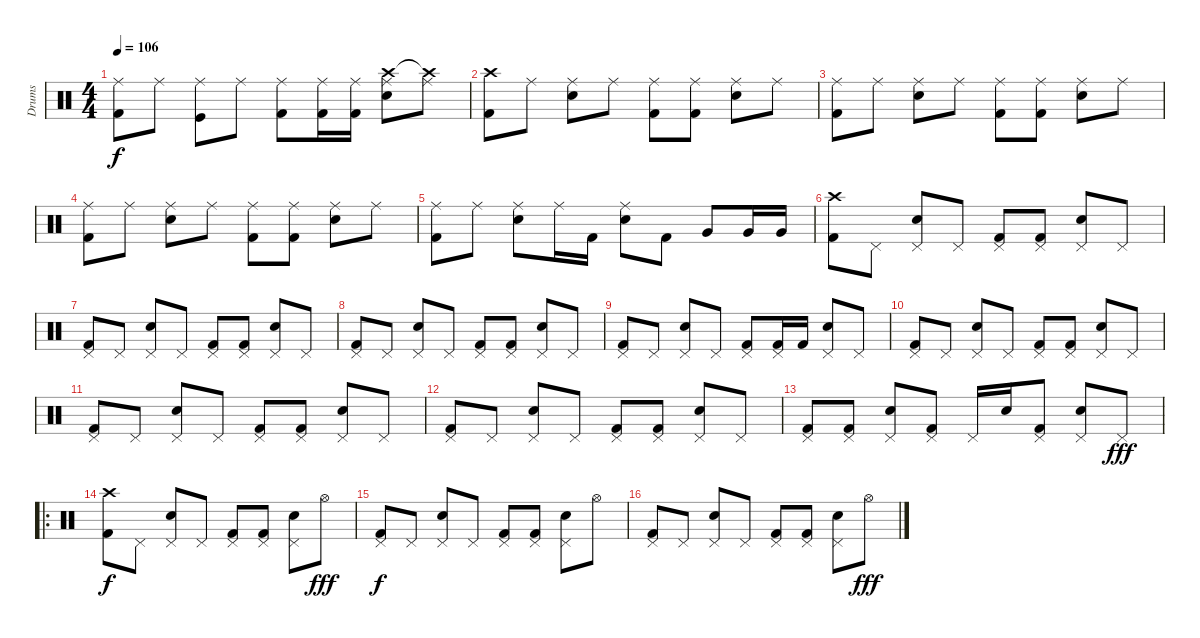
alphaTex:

\track ("Drums" "Drums") {instrument percussion}
\staff {score}
\articulation defaults
\ts (4 4)
\tempo 106
\clef neutral
\ks c
("Ride (middle)" "Kick (hit) 2").8{dy f} "Ride (middle)".8 ("Ride (middle)" "Kick (hit)").8 "Ride (middle)".8 ("Ride (middle)" "Kick (hit) 2").8 ("Ride (middle)" "Kick (hit) 2").16 ("Ride (middle)" "Kick (hit) 2").16 ("Crash high (hit)" "Ride (middle)" "Snare (hit) 2").8 ("Crash high (hit)"{t} "Ride (middle)").8 |
("Crash high (hit)" "Kick (hit) 2").8 "Ride (middle)".8 ("Ride (middle)" "Snare (hit) 2").8 "Ride (middle)".8 ("Ride (middle)" "Kick (hit) 2").8 ("Ride (middle)" "Kick (hit) 2").8 ("Ride (middle)" "Snare (hit) 2").8 "Ride (middle)".8 |
("Ride (middle)" "Kick (hit) 2").8 "Ride (middle)".8 ("Ride (middle)" "Snare (hit) 2").8 "Ride (middle)".8 ("Ride (middle)" "Kick (hit) 2").8 ("Ride (middle)" "Kick (hit) 2").8 ("Ride (middle)" "Snare (hit) 2").8 "Ride (middle)".8 |
("Ride (middle)" "Kick (hit) 2").8 "Ride (middle)".8 ("Ride (middle)" "Snare (hit) 2").8 "Ride (middle)".8 ("Ride (middle)" "Kick (hit) 2").8 ("Ride (middle)" "Kick (hit) 2").8 ("Ride (middle)" "Snare (hit) 2").8 "Ride (middle)".8 |
("Ride (middle)" "Kick (hit) 2").8 "Ride (middle)".8 ("Ride (middle)" "Snare (hit) 2").8 "Ride (middle)".16 "Kick (hit) 2".16 ("Ride (middle)" "Snare (hit) 2").8 "Kick (hit) 2".8 "Very Low Tom (hit)".8 "Very Low Tom (hit)".16 "Very Low Tom (hit)".16 |
("Crash high (hit)" "Kick (hit) 2").8 "Pedal Hi-Hat (hit)".8 ("Pedal Hi-Hat (hit)" "Snare (hit) 2").8 "Pedal Hi-Hat (hit)".8 ("Pedal Hi-Hat (hit)" "Kick (hit) 2").8 ("Pedal Hi-Hat (hit)" "Kick (hit) 2").8 ("Pedal Hi-Hat (hit)" "Snare (hit) 2").8 "Pedal Hi-Hat (hit)".8 |
("Pedal Hi-Hat (hit)" "Kick (hit) 2").8 "Pedal Hi-Hat (hit)".8 ("Pedal Hi-Hat (hit)" "Snare (hit) 2").8 "Pedal Hi-Hat (hit)".8 ("Pedal Hi-Hat (hit)" "Kick (hit) 2").8 ("Pedal Hi-Hat (hit)" "Kick (hit) 2").8 ("Pedal Hi-Hat (hit)" "Snare (hit) 2").8 "Pedal Hi-Hat (hit)".8 |
("Pedal Hi-Hat (hit)" "Kick (hit) 2").8 "Pedal Hi-Hat (hit)".8 ("Pedal Hi-Hat (hit)" "Snare (hit) 2").8 "Pedal Hi-Hat (hit)".8 ("Pedal Hi-Hat (hit)" "Kick (hit) 2").8 ("Pedal Hi-Hat (hit)" "Kick (hit) 2").8 ("Pedal Hi-Hat (hit)" "Snare (hit) 2").8 "Pedal Hi-Hat (hit)".8 |
("Pedal Hi-Hat (hit)" "Kick (hit) 2").8 "Pedal Hi-Hat (hit)".8 ("Pedal Hi-Hat (hit)" "Snare (hit) 2").8 "Pedal Hi-Hat (hit)".8 ("Pedal Hi-Hat (hit)" "Kick (hit) 2").8 ("Pedal Hi-Hat (hit)" "Kick (hit) 2").16 "Kick (hit) 2".16 ("Pedal Hi-Hat (hit)" "Snare (hit) 2").8 "Pedal Hi-Hat (hit)".8 |
("Pedal Hi-Hat (hit)" "Kick (hit) 2").8 "Pedal Hi-Hat (hit)".8 ("Pedal Hi-Hat (hit)" "Snare (hit) 2").8 "Pedal Hi-Hat (hit)".8 ("Pedal Hi-Hat (hit)" "Kick (hit) 2").8 ("Pedal Hi-Hat (hit)" "Kick (hit) 2").8 ("Pedal Hi-Hat (hit)" "Snare (hit) 2").8 "Pedal Hi-Hat (hit)".8 |
("Pedal Hi-Hat (hit)" "Kick (hit) 2").8 "Pedal Hi-Hat (hit)".8 ("Pedal Hi-Hat (hit)" "Snare (hit) 2").8 "Pedal Hi-Hat (hit)".8 ("Pedal Hi-Hat (hit)" "Kick (hit) 2").8 ("Pedal Hi-Hat (hit)" "Kick (hit) 2").8 ("Pedal Hi-Hat (hit)" "Snare (hit) 2").8 "Pedal Hi-Hat (hit)".8 |
("Pedal Hi-Hat (hit)" "Kick (hit) 2").8 "Pedal Hi-Hat (hit)".8 ("Pedal Hi-Hat (hit)" "Snare (hit) 2").8 "Pedal Hi-Hat (hit)".8 ("Pedal Hi-Hat (hit)" "Kick (hit) 2").8 ("Pedal Hi-Hat (hit)" "Kick (hit) 2").8 ("Pedal Hi-Hat (hit)" "Snare (hit) 2").8 "Pedal Hi-Hat (hit)".8 |
("Pedal Hi-Hat (hit)" "Kick (hit) 2").8 ("Pedal Hi-Hat (hit)" "Kick (hit) 2").8 ("Pedal Hi-Hat (hit)" "Snare (hit) 2").8 ("Pedal Hi-Hat (hit)" "Kick (hit) 2").8 "Pedal Hi-Hat (hit)".16 "Snare (hit) 2".16 ("Pedal Hi-Hat (hit)" "Kick (hit) 2").8 ("Pedal Hi-Hat (hit)" "Snare (hit) 2").8 "Pedal Hi-Hat (hit)".8{dy fff} |
\ro
("Crash high (hit)" "Kick (hit) 2").8{dy f} "Pedal Hi-Hat (hit)".8 ("Pedal Hi-Hat (hit)" "Snare (hit) 2").8 "Pedal Hi-Hat (hit)".8 ("Pedal Hi-Hat (hit)" "Kick (hit) 2").8 ("Pedal Hi-Hat (hit)" "Kick (hit) 2").8 ("Pedal Hi-Hat (hit)" "Snare (hit) 2").8 "Hi-Hat (open)".8{dy fff} |
("Pedal Hi-Hat (hit)" "Kick (hit) 2").8{dy f} "Pedal Hi-Hat (hit)".8 ("Pedal Hi-Hat (hit)" "Snare (hit) 2").8 "Pedal Hi-Hat (hit)".8 ("Pedal Hi-Hat (hit)" "Kick (hit) 2").8 ("Pedal Hi-Hat (hit)" "Kick (hit) 2").8 ("Pedal Hi-Hat (hit)" "Snare (hit) 2").8 "Hi-Hat (open)".8 |
("Pedal Hi-Hat (hit)" "Kick (hit) 2").8 "Pedal Hi-Hat (hit)".8 ("Pedal Hi-Hat (hit)" "Snare (hit) 2").8 "Pedal Hi-Hat (hit)".8 ("Pedal Hi-Hat (hit)" "Kick (hit) 2").8 ("Pedal Hi-Hat (hit)" "Kick (hit) 2").8 ("Pedal Hi-Hat (hit)" "Snare (hit) 2").8 "Hi-Hat (open)".8{dy fff}
